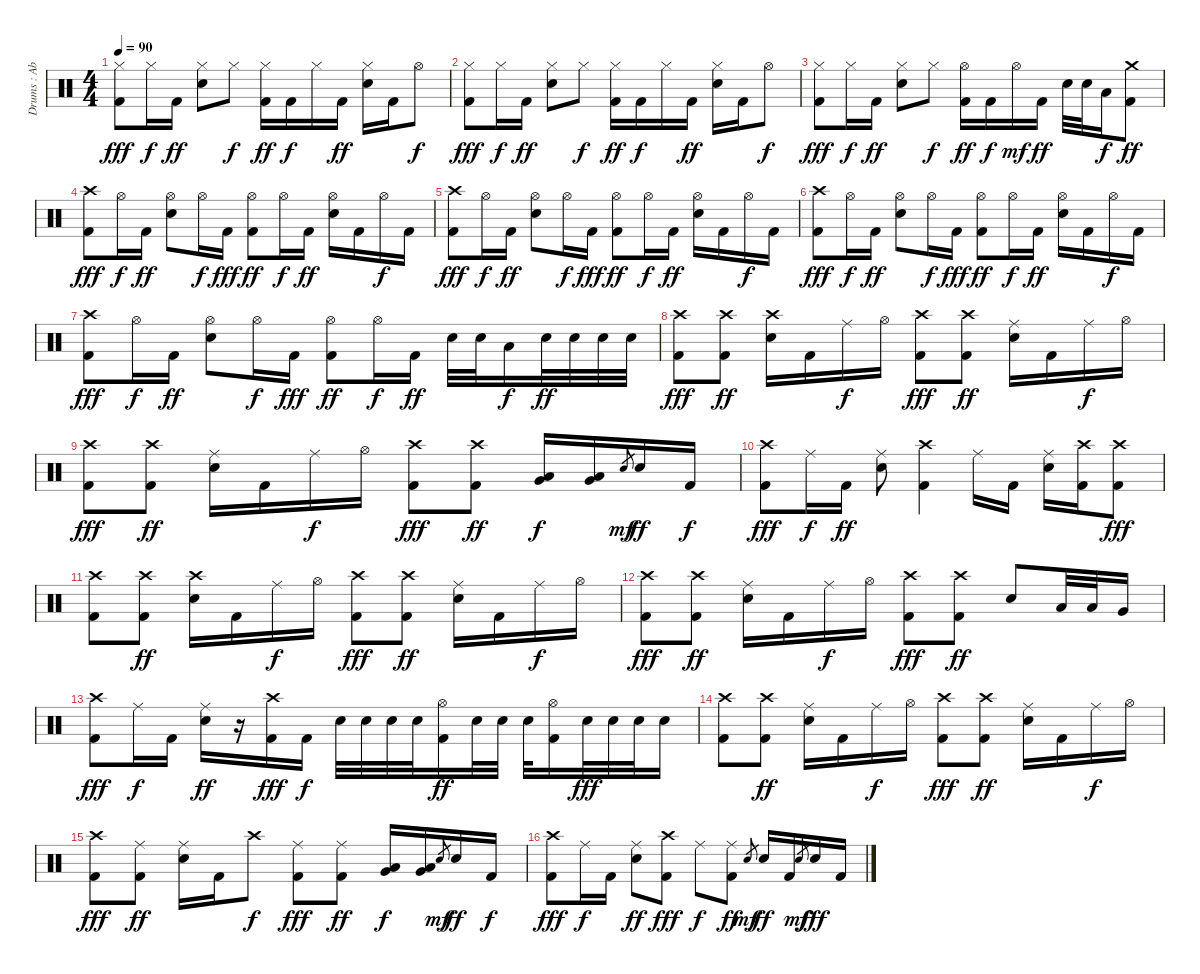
\track ("Drums : Abe Cunnigham" "Drums : Ab") {instrument percussion}
\staff {score}
\articulation defaults
\ts (4 4)
\tempo 90
\clef neutral
\ks c
("Hi-Hat (closed)" "Kick (hit) 2").8{dy fff} "Hi-Hat (closed)".16{dy f} "Kick (hit) 2".16{dy ff} ("Hi-Hat (closed)" "Electric Snare (hit)").8 "Hi-Hat (closed)".8{dy f} ("Hi-Hat (closed)" "Kick (hit) 2").16{dy ff} "Kick (hit) 2".16{dy f} "Hi-Hat (closed)".16 "Kick (hit) 2".16{dy ff} ("Hi-Hat (closed)" "Electric Snare (hit)").16 "Kick (hit) 2".16 "Hi-Hat (open)".8{dy f} |
("Hi-Hat (closed)" "Kick (hit) 2").8{dy fff} "Hi-Hat (closed)".16{dy f} "Kick (hit) 2".16{dy ff} ("Hi-Hat (closed)" "Electric Snare (hit)").8 "Hi-Hat (closed)".8{dy f} ("Hi-Hat (closed)" "Kick (hit) 2").16{dy ff} "Kick (hit) 2".16{dy f} "Hi-Hat (closed)".16 "Kick (hit) 2".16{dy ff} ("Hi-Hat (closed)" "Electric Snare (hit)").16 "Kick (hit) 2".16 "Hi-Hat (open)".8{dy f} |
("Hi-Hat (closed)" "Kick (hit) 2").8{dy fff} "Hi-Hat (closed)".16{dy f} "Kick (hit) 2".16{dy ff} ("Hi-Hat (closed)" "Electric Snare (hit)").8 "Hi-Hat (closed)".8{dy f} ("Hi-Hat (open)" "Kick (hit) 2").16{dy ff} "Kick (hit) 2".16{dy f} "Hi-Hat (open)".16{dy mf} "Kick (hit) 2".16{dy ff} "Electric Snare (hit)".32 "Electric Snare (hit)".32 "Low Tom (hit)".16{dy f} ("Crash medium (hit)" "Kick (hit) 2").8{dy ff} |
("Crash high (hit)" "Kick (hit) 2").8{dy fff} "Hi-Hat (open)".16{dy f} "Kick (hit) 2".16{dy ff} ("Hi-Hat (open)" "Electric Snare (hit)").8 "Hi-Hat (open)".16{dy f} "Kick (hit) 2".16{dy fff} ("Hi-Hat (open)" "Kick (hit) 2").8{dy ff} "Hi-Hat (open)".16{dy f} "Kick (hit) 2".16{dy ff} ("Hi-Hat (open)" "Electric Snare (hit)").16 "Kick (hit) 2".16 "Hi-Hat (open)".16{dy f} "Kick (hit) 2".16 |
("Crash high (hit)" "Kick (hit) 2").8{dy fff} "Hi-Hat (open)".16{dy f} "Kick (hit) 2".16{dy ff} ("Hi-Hat (open)" "Electric Snare (hit)").8 "Hi-Hat (open)".16{dy f} "Kick (hit) 2".16{dy fff} ("Hi-Hat (open)" "Kick (hit) 2").8{dy ff} "Hi-Hat (open)".16{dy f} "Kick (hit) 2".16{dy ff} ("Hi-Hat (open)" "Electric Snare (hit)").16 "Kick (hit) 2".16 "Hi-Hat (open)".16{dy f} "Kick (hit) 2".16 |
("Crash high (hit)" "Kick (hit) 2").8{dy fff} "Hi-Hat (open)".16{dy f} "Kick (hit) 2".16{dy ff} ("Hi-Hat (open)" "Electric Snare (hit)").8 "Hi-Hat (open)".16{dy f} "Kick (hit) 2".16{dy fff} ("Hi-Hat (open)" "Kick (hit) 2").8{dy ff} "Hi-Hat (open)".16{dy f} "Kick (hit) 2".16{dy ff} ("Hi-Hat (open)" "Electric Snare (hit)").16 "Kick (hit) 2".16 "Hi-Hat (open)".16{dy f} "Kick (hit) 2".16 |
("Crash high (hit)" "Kick (hit) 2").8{dy fff} "Hi-Hat (open)".16{dy f} "Kick (hit) 2".16{dy ff} ("Hi-Hat (open)" "Electric Snare (hit)").8 "Hi-Hat (open)".16{dy f} "Kick (hit) 2".16{dy fff} ("Hi-Hat (open)" "Kick (hit) 2").8{dy ff} "Hi-Hat (open)".16{dy f} "Kick (hit) 2".16{dy ff} "Electric Snare (hit)".32 "Electric Snare (hit)".32 "Low Tom (hit)".16{dy f} "Electric Snare (hit)".32{dy ff} "Electric Snare (hit)".32 "Electric Snare (hit)".32 "Electric Snare (hit)".32 |
("Crash high (hit)" "Kick (hit) 2").8{dy fff} ("Crash high (hit)" "Kick (hit) 2").8{dy ff} ("Crash high (hit)" "Electric Snare (hit)").16 "Kick (hit) 2".16 "Ride (middle)".16{dy f} "Hi-Hat (open)".16 ("Crash high (hit)" "Kick (hit) 2").8{dy fff} ("Crash high (hit)" "Kick (hit) 2").8{dy ff} ("Ride (middle)" "Electric Snare (hit)").16 "Kick (hit) 2".16 "Ride (middle)".16{dy f} "Hi-Hat (open)".16 |
("Crash high (hit)" "Kick (hit) 2").8{dy fff} ("Crash high (hit)" "Kick (hit) 2").8{dy ff} ("Ride (middle)" "Electric Snare (hit)").16 "Kick (hit) 2".16 "Ride (middle)".16{dy f} "Hi-Hat (open)".16 ("Crash high (hit)" "Kick (hit) 2").8{dy fff} ("Crash high (hit)" "Kick (hit) 2").8{dy ff} ("Low Tom (hit)" "Very Low Tom (hit)").16{dy f} ("Low Tom (hit)" "Very Low Tom (hit)").16 "Electric Snare (hit)".8{gr dy mf} "Electric Snare (hit)".16{dy ff} "Kick (hit) 2".16{dy f} |
("Crash high (hit)" "Kick (hit) 2").8{dy fff} "Ride (middle)".16{dy f} "Kick (hit) 2".16{dy ff} ("Ride (middle)" "Electric Snare (hit)").8 ("Crash high (hit)" "Kick (hit) 2").4 "Ride (middle)".16 "Kick (hit) 2".16 ("Ride (middle)" "Electric Snare (hit)").16 ("Crash high (hit)" "Kick (hit) 2").16 ("Crash high (hit)" "Kick (hit) 2").8{dy fff} |
("Crash high (hit)" "Kick (hit) 2").8 ("Crash high (hit)" "Kick (hit) 2").8{dy ff} ("Crash high (hit)" "Electric Snare (hit)").16 "Kick (hit) 2".16 "Ride (middle)".16{dy f} "Hi-Hat (open)".16 ("Crash high (hit)" "Kick (hit) 2").8{dy fff} ("Crash high (hit)" "Kick (hit) 2").8{dy ff} ("Ride (middle)" "Electric Snare (hit)").16 "Kick (hit) 2".16 "Ride (middle)".16{dy f} "Hi-Hat (open)".16 |
("Crash high (hit)" "Kick (hit) 2").8{dy fff} ("Crash high (hit)" "Kick (hit) 2").8{dy ff} ("Ride (middle)" "Electric Snare (hit)").16 "Kick (hit) 2".16 "Ride (middle)".16{dy f} "Hi-Hat (open)".16 ("Crash high (hit)" "Kick (hit) 2").8{dy fff} ("Crash high (hit)" "Kick (hit) 2").8{dy ff} "Electric Snare (hit)".8 "Low Tom (hit)".32 "Low Tom (hit)".32 "Very Low Tom (hit)".16 |
("Crash high (hit)" "Kick (hit) 2").8{dy fff} "Ride (middle)".16{dy f} "Kick (hit) 2".16 ("Ride (middle)" "Electric Snare (hit)").16{dy ff} r.16 ("Crash high (hit)" "Kick (hit) 2").16{dy fff} "Kick (hit) 2".16{dy f} "Electric Snare (hit)".32 "Electric Snare (hit)".32 "Electric Snare (hit)".32 "Electric Snare (hit)".32 ("Hi-Hat (open)" "Kick (hit) 2").16{dy ff} "Electric Snare (hit)".32 "Electric Snare (hit)".32 "Electric Snare (hit)".32 ("Hi-Hat (open)" "Kick (hit) 2").16 "Electric Snare (hit)".32{dy fff} "Electric Snare (hit)".32 "Electric Snare (hit)".32 "Electric Snare (hit)".16 |
("Crash high (hit)" "Kick (hit) 2").8 ("Crash high (hit)" "Kick (hit) 2").8{dy ff} ("Ride (middle)" "Electric Snare (hit)").16 "Kick (hit) 2".16 "Ride (middle)".16{dy f} "Hi-Hat (open)".16 ("Crash high (hit)" "Kick (hit) 2").8{dy fff} ("Crash high (hit)" "Kick (hit) 2").8{dy ff} ("Ride (middle)" "Electric Snare (hit)").16 "Kick (hit) 2".16 "Ride (middle)".16{dy f} "Hi-Hat (open)".16 |
("Crash high (hit)" "Kick (hit) 2").8{dy fff} ("Ride (middle)" "Kick (hit) 2").8{dy ff} ("Ride (middle)" "Electric Snare (hit)").16 "Kick (hit) 2".16 "Crash high (hit)".8{dy f} ("Ride (middle)" "Kick (hit) 2").8{dy fff} ("Ride (middle)" "Kick (hit) 2").8{dy ff} ("Low Tom (hit)" "Very Low Tom (hit)").16{dy f} ("Low Tom (hit)" "Very Low Tom (hit)").16 "Electric Snare (hit)".8{gr dy mf} "Electric Snare (hit)".16{dy ff} "Kick (hit) 2".16{dy f} |
("Crash high (hit)" "Kick (hit) 2").8{dy fff} "Ride (middle)".16{dy f} "Kick (hit) 2".16 ("Ride (middle)" "Electric Snare (hit)").8{dy ff} ("Crash high (hit)" "Kick (hit) 2").8{dy fff} "Ride (middle)".8{dy f} ("Ride (middle)" "Kick (hit) 2").8{dy ff} "Electric Snare (hit)".8{gr dy mf} "Electric Snare (hit)".16{dy ff} "Kick (hit) 2".16 "Electric Snare (hit)".8{gr dy mf} "Electric Snare (hit)".16{dy fff} "Kick (hit) 2".16
